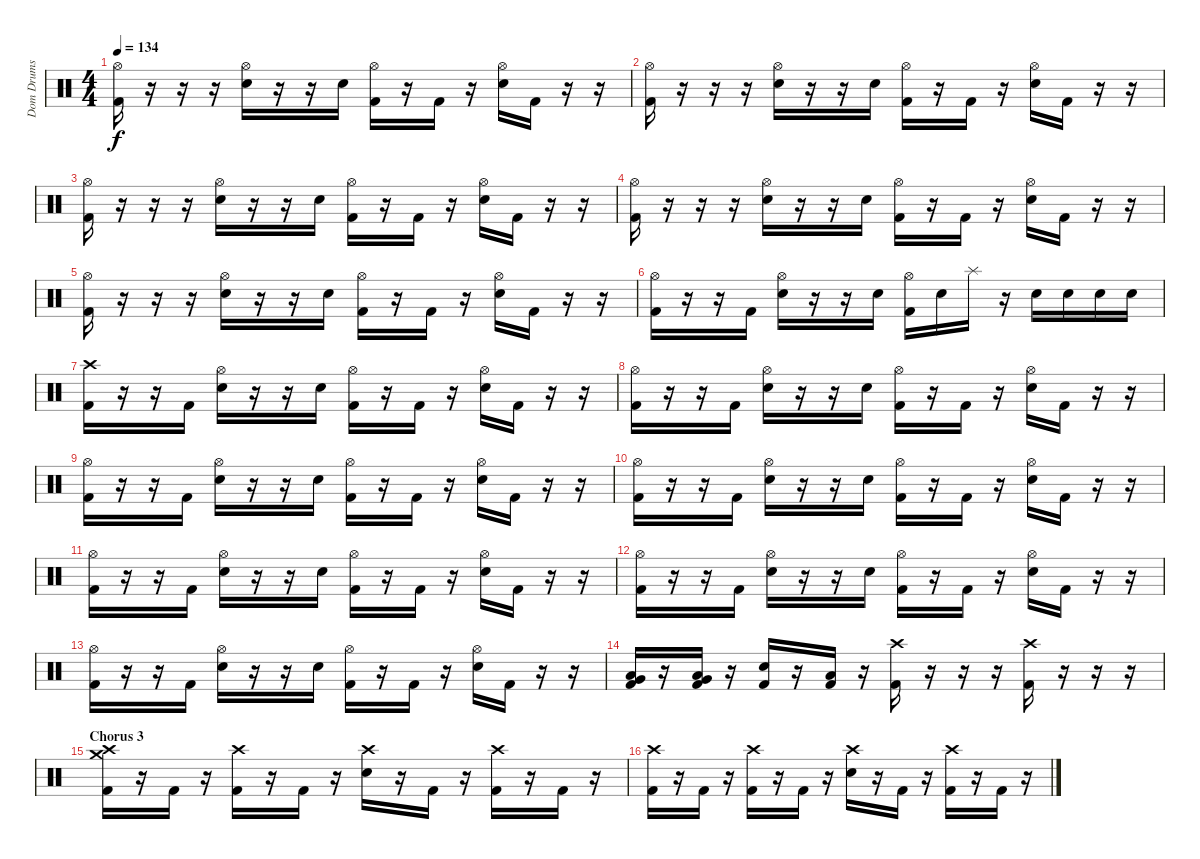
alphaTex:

\track ("Dom Drums" "Dom Drums") {instrument percussion}
\staff {score}
\articulation defaults
\ts (4 4)
\tempo 134
\clef neutral
\ks c
("Hi-Hat (open)" "Kick (hit) 2").16{dy f} r.16 r.16 r.16 ("Hi-Hat (open)" "Electric Snare (hit)").16 r.16 r.16 "Electric Snare (hit)".16 ("Hi-Hat (open)" "Kick (hit) 2").16 r.16 "Kick (hit) 2".16 r.16 ("Hi-Hat (open)" "Electric Snare (hit)").16 "Kick (hit) 2".16 r.16 r.16 |
("Hi-Hat (open)" "Kick (hit) 2").16 r.16 r.16 r.16 ("Hi-Hat (open)" "Electric Snare (hit)").16 r.16 r.16 "Electric Snare (hit)".16 ("Hi-Hat (open)" "Kick (hit) 2").16 r.16 "Kick (hit) 2".16 r.16 ("Hi-Hat (open)" "Electric Snare (hit)").16 "Kick (hit) 2".16 r.16 r.16 |
("Hi-Hat (open)" "Kick (hit) 2").16 r.16 r.16 r.16 ("Hi-Hat (open)" "Electric Snare (hit)").16 r.16 r.16 "Electric Snare (hit)".16 ("Hi-Hat (open)" "Kick (hit) 2").16 r.16 "Kick (hit) 2".16 r.16 ("Hi-Hat (open)" "Electric Snare (hit)").16 "Kick (hit) 2".16 r.16 r.16 |
("Hi-Hat (open)" "Kick (hit) 2").16 r.16 r.16 r.16 ("Hi-Hat (open)" "Electric Snare (hit)").16 r.16 r.16 "Electric Snare (hit)".16 ("Hi-Hat (open)" "Kick (hit) 2").16 r.16 "Kick (hit) 2".16 r.16 ("Hi-Hat (open)" "Electric Snare (hit)").16 "Kick (hit) 2".16 r.16 r.16 |
("Hi-Hat (open)" "Kick (hit) 2").16 r.16 r.16 r.16 ("Hi-Hat (open)" "Electric Snare (hit)").16 r.16 r.16 "Electric Snare (hit)".16 ("Hi-Hat (open)" "Kick (hit) 2").16 r.16 "Kick (hit) 2".16 r.16 ("Hi-Hat (open)" "Electric Snare (hit)").16 "Kick (hit) 2".16 r.16 r.16 |
("Hi-Hat (open)" "Kick (hit) 2").16 r.16 r.16 "Kick (hit) 2".16 ("Hi-Hat (open)" "Electric Snare (hit)").16 r.16 r.16 "Electric Snare (hit)".16 ("Hi-Hat (open)" "Kick (hit) 2").16 "Electric Snare (hit)".16 "Splash (hit)".16 r.16 "Electric Snare (hit)".16 "Electric Snare (hit)".16 "Electric Snare (hit)".16 "Electric Snare (hit)".16 |
("Crash high (hit)" "Kick (hit) 2").16 r.16 r.16 "Kick (hit) 2".16 ("Hi-Hat (open)" "Electric Snare (hit)").16 r.16 r.16 "Electric Snare (hit)".16 ("Hi-Hat (open)" "Kick (hit) 2").16 r.16 "Kick (hit) 2".16 r.16 ("Hi-Hat (open)" "Electric Snare (hit)").16 "Kick (hit) 2".16 r.16 r.16 |
("Hi-Hat (open)" "Kick (hit) 2").16 r.16 r.16 "Kick (hit) 2".16 ("Hi-Hat (open)" "Electric Snare (hit)").16 r.16 r.16 "Electric Snare (hit)".16 ("Hi-Hat (open)" "Kick (hit) 2").16 r.16 "Kick (hit) 2".16 r.16 ("Hi-Hat (open)" "Electric Snare (hit)").16 "Kick (hit) 2".16 r.16 r.16 |
("Hi-Hat (open)" "Kick (hit) 2").16 r.16 r.16 "Kick (hit) 2".16 ("Hi-Hat (open)" "Electric Snare (hit)").16 r.16 r.16 "Electric Snare (hit)".16 ("Hi-Hat (open)" "Kick (hit) 2").16 r.16 "Kick (hit) 2".16 r.16 ("Hi-Hat (open)" "Electric Snare (hit)").16 "Kick (hit) 2".16 r.16 r.16 |
("Hi-Hat (open)" "Kick (hit) 2").16 r.16 r.16 "Kick (hit) 2".16 ("Hi-Hat (open)" "Electric Snare (hit)").16 r.16 r.16 "Electric Snare (hit)".16 ("Hi-Hat (open)" "Kick (hit) 2").16 r.16 "Kick (hit) 2".16 r.16 ("Hi-Hat (open)" "Electric Snare (hit)").16 "Kick (hit) 2".16 r.16 r.16 |
("Hi-Hat (open)" "Kick (hit) 2").16 r.16 r.16 "Kick (hit) 2".16 ("Hi-Hat (open)" "Electric Snare (hit)").16 r.16 r.16 "Electric Snare (hit)".16 ("Hi-Hat (open)" "Kick (hit) 2").16 r.16 "Kick (hit) 2".16 r.16 ("Hi-Hat (open)" "Electric Snare (hit)").16 "Kick (hit) 2".16 r.16 r.16 |
("Hi-Hat (open)" "Kick (hit) 2").16 r.16 r.16 "Kick (hit) 2".16 ("Hi-Hat (open)" "Electric Snare (hit)").16 r.16 r.16 "Electric Snare (hit)".16 ("Hi-Hat (open)" "Kick (hit) 2").16 r.16 "Kick (hit) 2".16 r.16 ("Hi-Hat (open)" "Electric Snare (hit)").16 "Kick (hit) 2".16 r.16 r.16 |
("Hi-Hat (open)" "Kick (hit) 2").16 r.16 r.16 "Kick (hit) 2".16 ("Hi-Hat (open)" "Electric Snare (hit)").16 r.16 r.16 "Electric Snare (hit)".16 ("Hi-Hat (open)" "Kick (hit) 2").16 r.16 "Kick (hit) 2".16 r.16 ("Hi-Hat (open)" "Electric Snare (hit)").16 "Kick (hit) 2".16 r.16 r.16 |
("Very Low Tom (hit)" "Low Floor Tom (hit)" "Kick (hit) 2").16 r.16 ("Very Low Tom (hit)" "Low Floor Tom (hit)" "Kick (hit) 2").16 r.16 ("Electric Snare (hit)" "Kick (hit) 2").16 r.16 ("Low Floor Tom (hit)" "Kick (hit) 2").16 r.16 ("Crash high (hit)" "Kick (hit) 2").16 r.16 r.16 r.16 ("Crash high (hit)" "Kick (hit) 2").16 r.16 r.16 r.16 |
\section ("" "Chorus 3")
("Crash high (hit)" "Crash medium (hit)" "Kick (hit) 2").16 r.16 "Kick (hit) 2".16 r.16 ("Crash high (hit)" "Kick (hit) 2").16 r.16 "Kick (hit) 2".16 r.16 ("Crash high (hit)" "Electric Snare (hit)").16 r.16 "Kick (hit) 2".16 r.16 ("Crash high (hit)" "Kick (hit) 2").16 r.16 "Kick (hit) 2".16 r.16 |
("Crash high (hit)" "Kick (hit) 2").16 r.16 "Kick (hit) 2".16 r.16 ("Crash high (hit)" "Kick (hit) 2").16 r.16 "Kick (hit) 2".16 r.16 ("Crash high (hit)" "Electric Snare (hit)").16 r.16 "Kick (hit) 2".16 r.16 ("Crash high (hit)" "Kick (hit) 2").16 r.16 "Kick (hit) 2".16 r.16
